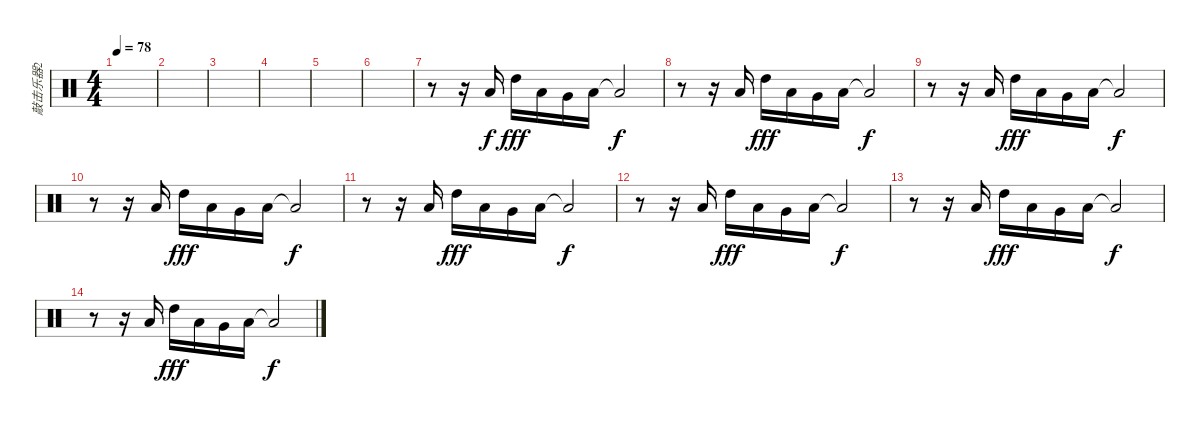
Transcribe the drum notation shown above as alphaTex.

\track ("敲击乐器2" "敲击乐器2") {instrument percussion}
\staff {score}
\articulation defaults
\ts (4 4)
\tempo 78
\clef neutral
\ks c
|
|
|
|
|
|
r.8 r.16 "Low Tom (hit)".16 "High Tom (hit)".16{dy fff} "Low Tom (hit)".16 "Very Low Tom (hit)".16 "Low Floor Tom (hit)".16 "Low Tom (hit)"{t}.2{dy f} |
r.8 r.16 "Low Tom (hit)".16 "High Tom (hit)".16{dy fff} "Low Tom (hit)".16 "Very Low Tom (hit)".16 "Low Floor Tom (hit)".16 "Low Tom (hit)"{t}.2{dy f} |
r.8 r.16 "Low Tom (hit)".16 "High Tom (hit)".16{dy fff} "Low Tom (hit)".16 "Very Low Tom (hit)".16 "Low Floor Tom (hit)".16 "Low Tom (hit)"{t}.2{dy f} |
r.8 r.16 "Low Tom (hit)".16 "High Tom (hit)".16{dy fff} "Low Tom (hit)".16 "Very Low Tom (hit)".16 "Low Floor Tom (hit)".16 "Low Tom (hit)"{t}.2{dy f} |
r.8 r.16 "Low Tom (hit)".16 "High Tom (hit)".16{dy fff} "Low Tom (hit)".16 "Very Low Tom (hit)".16 "Low Floor Tom (hit)".16 "Low Tom (hit)"{t}.2{dy f} |
r.8 r.16 "Low Tom (hit)".16 "High Tom (hit)".16{dy fff} "Low Tom (hit)".16 "Very Low Tom (hit)".16 "Low Floor Tom (hit)".16 "Low Tom (hit)"{t}.2{dy f} |
r.8 r.16 "Low Tom (hit)".16 "High Tom (hit)".16{dy fff} "Low Tom (hit)".16 "Very Low Tom (hit)".16 "Low Floor Tom (hit)".16 "Low Tom (hit)"{t}.2{dy f} |
r.8 r.16 "Low Tom (hit)".16 "High Tom (hit)".16{dy fff} "Low Tom (hit)".16 "Very Low Tom (hit)".16 "Low Floor Tom (hit)".16 "Low Tom (hit)"{t}.2{dy f}
